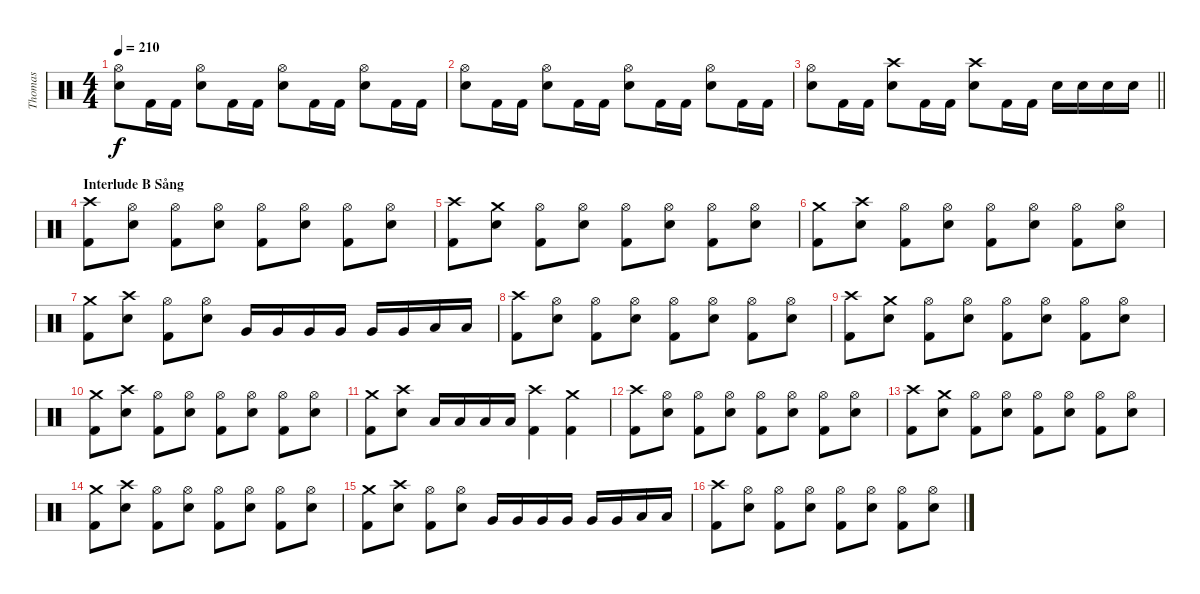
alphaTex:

\track ("Thomas" "Thomas") {instrument percussion}
\staff {score}
\articulation defaults
\ts (4 4)
\tempo 210
\clef neutral
\ks c
("Hi-Hat (open)" "Snare (hit) 2").8{dy f} "Kick (hit) 2".16 "Kick (hit) 2".16 ("Hi-Hat (open)" "Snare (hit) 2").8 "Kick (hit) 2".16 "Kick (hit) 2".16 ("Hi-Hat (open)" "Snare (hit) 2").8 "Kick (hit) 2".16 "Kick (hit) 2".16 ("Hi-Hat (open)" "Snare (hit) 2").8 "Kick (hit) 2".16 "Kick (hit) 2".16 |
("Hi-Hat (open)" "Snare (hit) 2").8 "Kick (hit) 2".16 "Kick (hit) 2".16 ("Hi-Hat (open)" "Snare (hit) 2").8 "Kick (hit) 2".16 "Kick (hit) 2".16 ("Hi-Hat (open)" "Snare (hit) 2").8 "Kick (hit) 2".16 "Kick (hit) 2".16 ("Hi-Hat (open)" "Snare (hit) 2").8 "Kick (hit) 2".16 "Kick (hit) 2".16 |
\barLineRight lightlight
("Hi-Hat (open)" "Snare (hit) 2").8 "Kick (hit) 2".16 "Kick (hit) 2".16 ("Crash high (hit)" "Snare (hit) 2").8 "Kick (hit) 2".16 "Kick (hit) 2".16 ("Crash high (hit)" "Snare (hit) 2").8 "Kick (hit) 2".16 "Kick (hit) 2".16 "Snare (hit) 2".16 "Snare (hit) 2".16 "Snare (hit) 2".16 "Snare (hit) 2".16 |
\section ("" "Interlude B Sång")
("Crash high (hit)" "Kick (hit) 2").8 ("Hi-Hat (open)" "Snare (hit) 2").8 ("Hi-Hat (open)" "Kick (hit) 2").8 ("Hi-Hat (open)" "Snare (hit) 2").8 ("Hi-Hat (open)" "Kick (hit) 2").8 ("Hi-Hat (open)" "Snare (hit) 2").8 ("Hi-Hat (open)" "Kick (hit) 2").8 ("Hi-Hat (open)" "Snare (hit) 2").8 |
("Crash high (hit)" "Kick (hit) 2").8 ("Crash medium (hit)" "Snare (hit) 2").8 ("Hi-Hat (open)" "Kick (hit) 2").8 ("Hi-Hat (open)" "Snare (hit) 2").8 ("Hi-Hat (open)" "Kick (hit) 2").8 ("Hi-Hat (open)" "Snare (hit) 2").8 ("Hi-Hat (open)" "Kick (hit) 2").8 ("Hi-Hat (open)" "Snare (hit) 2").8 |
("Crash medium (hit)" "Kick (hit) 2").8 ("Crash high (hit)" "Snare (hit) 2").8 ("Hi-Hat (open)" "Kick (hit) 2").8 ("Hi-Hat (open)" "Snare (hit) 2").8 ("Hi-Hat (open)" "Kick (hit) 2").8 ("Hi-Hat (open)" "Snare (hit) 2").8 ("Hi-Hat (open)" "Kick (hit) 2").8 ("Hi-Hat (open)" "Snare (hit) 2").8 |
("Crash medium (hit)" "Kick (hit) 2").8 ("Crash high (hit)" "Snare (hit) 2").8 ("Hi-Hat (open)" "Kick (hit) 2").8 ("Hi-Hat (open)" "Snare (hit) 2").8 "Very Low Tom (hit)".16 "Very Low Tom (hit)".16 "Very Low Tom (hit)".16 "Very Low Tom (hit)".16 "Very Low Tom (hit)".16 "Very Low Tom (hit)".16 "Low Floor Tom (hit)".16 "Low Floor Tom (hit)".16 |
("Crash high (hit)" "Kick (hit) 2").8 ("Hi-Hat (open)" "Snare (hit) 2").8 ("Hi-Hat (open)" "Kick (hit) 2").8 ("Hi-Hat (open)" "Snare (hit) 2").8 ("Hi-Hat (open)" "Kick (hit) 2").8 ("Hi-Hat (open)" "Snare (hit) 2").8 ("Hi-Hat (open)" "Kick (hit) 2").8 ("Hi-Hat (open)" "Snare (hit) 2").8 |
("Crash high (hit)" "Kick (hit) 2").8 ("Crash medium (hit)" "Snare (hit) 2").8 ("Hi-Hat (open)" "Kick (hit) 2").8 ("Hi-Hat (open)" "Snare (hit) 2").8 ("Hi-Hat (open)" "Kick (hit) 2").8 ("Hi-Hat (open)" "Snare (hit) 2").8 ("Hi-Hat (open)" "Kick (hit) 2").8 ("Hi-Hat (open)" "Snare (hit) 2").8 |
("Crash medium (hit)" "Kick (hit) 2").8 ("Crash high (hit)" "Snare (hit) 2").8 ("Hi-Hat (open)" "Kick (hit) 2").8 ("Hi-Hat (open)" "Snare (hit) 2").8 ("Hi-Hat (open)" "Kick (hit) 2").8 ("Hi-Hat (open)" "Snare (hit) 2").8 ("Hi-Hat (open)" "Kick (hit) 2").8 ("Hi-Hat (open)" "Snare (hit) 2").8 |
("Crash medium (hit)" "Kick (hit) 2").8 ("Crash high (hit)" "Snare (hit) 2").8 "Low Floor Tom (hit)".16 "Low Floor Tom (hit)".16 "Low Floor Tom (hit)".16 "Low Floor Tom (hit)".16 ("Crash high (hit)" "Kick (hit) 2").4 ("Crash medium (hit)" "Kick (hit) 2").4 |
("Crash high (hit)" "Kick (hit) 2").8 ("Hi-Hat (open)" "Snare (hit) 2").8 ("Hi-Hat (open)" "Kick (hit) 2").8 ("Hi-Hat (open)" "Snare (hit) 2").8 ("Hi-Hat (open)" "Kick (hit) 2").8 ("Hi-Hat (open)" "Snare (hit) 2").8 ("Hi-Hat (open)" "Kick (hit) 2").8 ("Hi-Hat (open)" "Snare (hit) 2").8 |
("Crash high (hit)" "Kick (hit) 2").8 ("Crash medium (hit)" "Snare (hit) 2").8 ("Hi-Hat (open)" "Kick (hit) 2").8 ("Hi-Hat (open)" "Snare (hit) 2").8 ("Hi-Hat (open)" "Kick (hit) 2").8 ("Hi-Hat (open)" "Snare (hit) 2").8 ("Hi-Hat (open)" "Kick (hit) 2").8 ("Hi-Hat (open)" "Snare (hit) 2").8 |
("Crash medium (hit)" "Kick (hit) 2").8 ("Crash high (hit)" "Snare (hit) 2").8 ("Hi-Hat (open)" "Kick (hit) 2").8 ("Hi-Hat (open)" "Snare (hit) 2").8 ("Hi-Hat (open)" "Kick (hit) 2").8 ("Hi-Hat (open)" "Snare (hit) 2").8 ("Hi-Hat (open)" "Kick (hit) 2").8 ("Hi-Hat (open)" "Snare (hit) 2").8 |
("Crash medium (hit)" "Kick (hit) 2").8 ("Crash high (hit)" "Snare (hit) 2").8 ("Hi-Hat (open)" "Kick (hit) 2").8 ("Hi-Hat (open)" "Snare (hit) 2").8 "Very Low Tom (hit)".16 "Very Low Tom (hit)".16 "Very Low Tom (hit)".16 "Very Low Tom (hit)".16 "Very Low Tom (hit)".16 "Very Low Tom (hit)".16 "Low Floor Tom (hit)".16 "Low Floor Tom (hit)".16 |
("Crash high (hit)" "Kick (hit) 2").8 ("Hi-Hat (open)" "Snare (hit) 2").8 ("Hi-Hat (open)" "Kick (hit) 2").8 ("Hi-Hat (open)" "Snare (hit) 2").8 ("Hi-Hat (open)" "Kick (hit) 2").8 ("Hi-Hat (open)" "Snare (hit) 2").8 ("Hi-Hat (open)" "Kick (hit) 2").8 ("Hi-Hat (open)" "Snare (hit) 2").8
